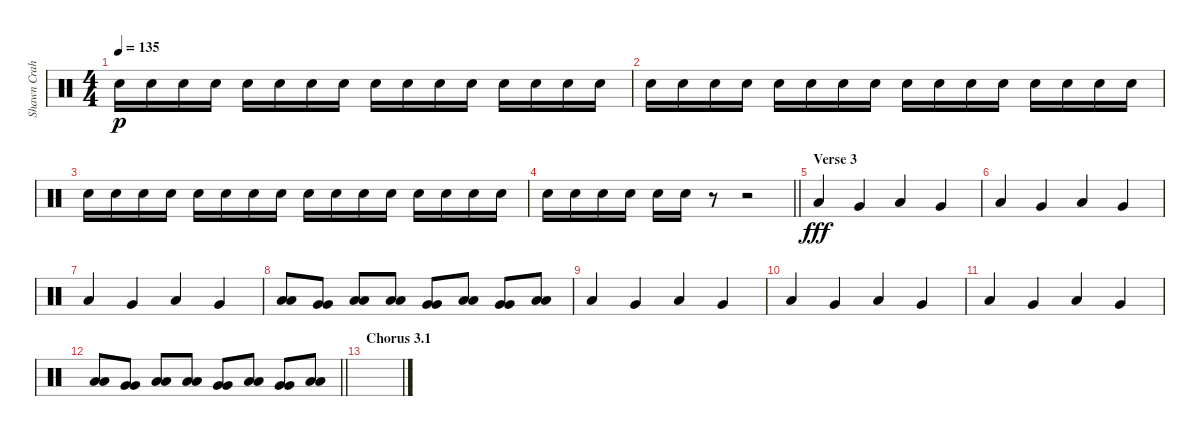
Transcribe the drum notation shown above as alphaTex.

\track ("Shawn Crahan" "Shawn Crah") {instrument percussion}
\staff {score}
\articulation defaults
\ts (4 4)
\tempo 135
\clef neutral
\ks c "Snare (hit) 2".16{dy p} "Snare (hit) 2".16 "Snare (hit) 2".16 "Snare (hit) 2".16 "Snare (hit) 2".16 "Snare (hit) 2".16 "Snare (hit) 2".16 "Snare (hit) 2".16 "Snare (hit) 2".16 "Snare (hit) 2".16 "Snare (hit) 2".16 "Snare (hit) 2".16 "Snare (hit) 2".16 "Snare (hit) 2".16 "Snare (hit) 2".16 "Snare (hit) 2".16
|
"Snare (hit) 2".16 "Snare (hit) 2".16 "Snare (hit) 2".16 "Snare (hit) 2".16 "Snare (hit) 2".16 "Snare (hit) 2".16 "Snare (hit) 2".16 "Snare (hit) 2".16 "Snare (hit) 2".16 "Snare (hit) 2".16 "Snare (hit) 2".16 "Snare (hit) 2".16 "Snare (hit) 2".16 "Snare (hit) 2".16 "Snare (hit) 2".16 "Snare (hit) 2".16 |
"Snare (hit) 2".16 "Snare (hit) 2".16 "Snare (hit) 2".16 "Snare (hit) 2".16 "Snare (hit) 2".16 "Snare (hit) 2".16 "Snare (hit) 2".16 "Snare (hit) 2".16 "Snare (hit) 2".16 "Snare (hit) 2".16 "Snare (hit) 2".16 "Snare (hit) 2".16 "Snare (hit) 2".16 "Snare (hit) 2".16 "Snare (hit) 2".16 "Snare (hit) 2".16 |
\barLineRight lightlight "Snare (hit) 2".16 "Snare (hit) 2".16 "Snare (hit) 2".16 "Snare (hit) 2".16 "Snare (hit) 2".16 "Snare (hit) 2".16
r.8 r.2 |
\section ("" "Verse 3")
"Low Floor Tom (hit)".4{dy fff} "Very Low Tom (hit)".4 "Low Floor Tom (hit)".4 "Very Low Tom (hit)".4 |
"Low Floor Tom (hit)".4 "Very Low Tom (hit)".4 "Low Floor Tom (hit)".4 "Very Low Tom (hit)".4 |
"Low Floor Tom (hit)".4 "Very Low Tom (hit)".4 "Low Floor Tom (hit)".4 "Very Low Tom (hit)".4 |
("Low Tom (hit)" "Low Tom (hit)").8 ("Very Low Tom (hit)" "Very Low Tom (hit)").8 ("Low Floor Tom (hit)" "Low Floor Tom (hit)").8 ("Low Floor Tom (hit)" "Low Floor Tom (hit)").8 ("Very Low Tom (hit)" "Very Low Tom (hit)").8 ("Low Floor Tom (hit)" "Low Floor Tom (hit)").8 ("Very Low Tom (hit)" "Very Low Tom (hit)").8 ("Low Floor Tom (hit)" "Low Floor Tom (hit)").8 |
"Low Floor Tom (hit)".4 "Very Low Tom (hit)".4 "Low Floor Tom (hit)".4 "Very Low Tom (hit)".4 |
"Low Floor Tom (hit)".4 "Very Low Tom (hit)".4 "Low Floor Tom (hit)".4 "Very Low Tom (hit)".4 |
"Low Floor Tom (hit)".4 "Very Low Tom (hit)".4 "Low Floor Tom (hit)".4 "Very Low Tom (hit)".4 |
\barLineRight lightlight
("Low Tom (hit)" "Low Tom (hit)").8 ("Very Low Tom (hit)" "Very Low Tom (hit)").8 ("Low Floor Tom (hit)" "Low Floor Tom (hit)").8 ("Low Floor Tom (hit)" "Low Floor Tom (hit)").8 ("Very Low Tom (hit)" "Very Low Tom (hit)").8 ("Low Floor Tom (hit)" "Low Floor Tom (hit)").8 ("Very Low Tom (hit)" "Very Low Tom (hit)").8 ("Low Floor Tom (hit)" "Low Floor Tom (hit)").8 |
\section ("" "Chorus 3.1")
